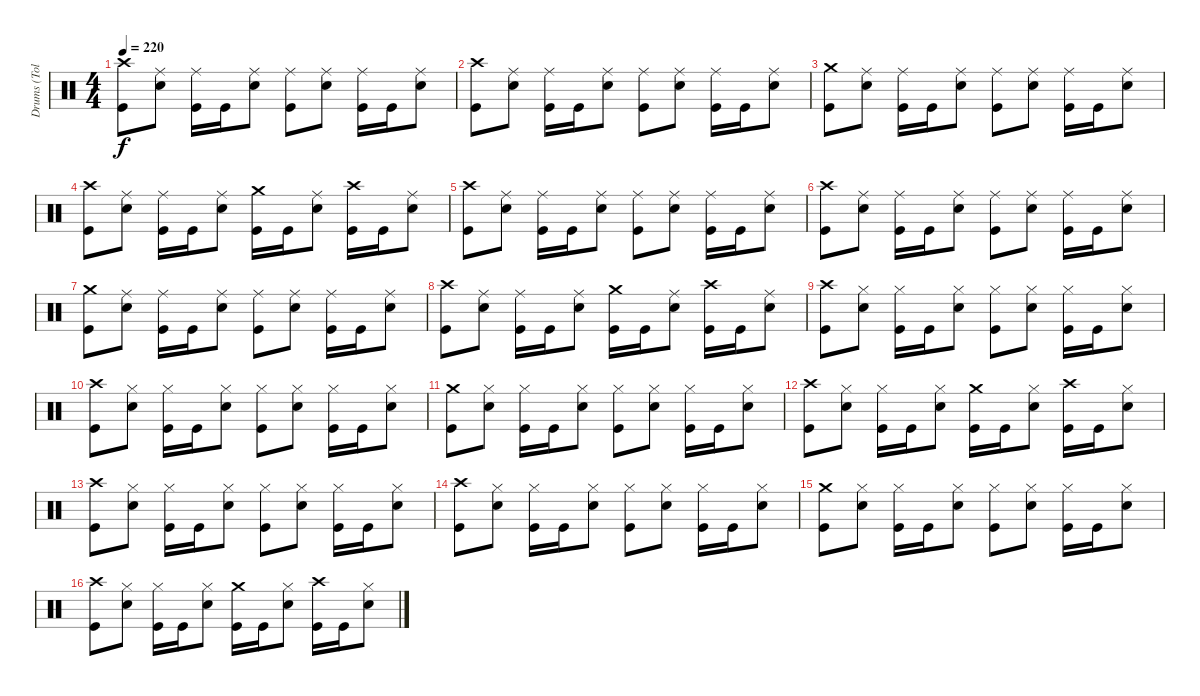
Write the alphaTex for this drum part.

\track ("Drums (Tolik)" "Drums (Tol") {instrument percussion}
\staff {score}
\articulation defaults
\ts (4 4)
\tempo 220
\clef neutral
\ks c
("Crash high (hit)" "Kick (hit)").8{dy f} ("Ride (middle)" "Electric Snare (hit)").8 ("Ride (middle)" "Kick (hit)").16 "Kick (hit)".16 ("Ride (middle)" "Electric Snare (hit)").8 ("Ride (middle)" "Kick (hit)").8 ("Ride (middle)" "Electric Snare (hit)").8 ("Ride (middle)" "Kick (hit)").16 "Kick (hit)".16 ("Ride (middle)" "Electric Snare (hit)").8 |
("Crash high (hit)" "Kick (hit)").8 ("Ride (middle)" "Electric Snare (hit)").8 ("Ride (middle)" "Kick (hit)").16 "Kick (hit)".16 ("Ride (middle)" "Electric Snare (hit)").8 ("Ride (middle)" "Kick (hit)").8 ("Ride (middle)" "Electric Snare (hit)").8 ("Ride (middle)" "Kick (hit)").16 "Kick (hit)".16 ("Ride (middle)" "Electric Snare (hit)").8 |
("Crash medium (hit)" "Kick (hit)").8 ("Ride (middle)" "Electric Snare (hit)").8 ("Ride (middle)" "Kick (hit)").16 "Kick (hit)".16 ("Ride (middle)" "Electric Snare (hit)").8 ("Ride (middle)" "Kick (hit)").8 ("Ride (middle)" "Electric Snare (hit)").8 ("Ride (middle)" "Kick (hit)").16 "Kick (hit)".16 ("Ride (middle)" "Electric Snare (hit)").8 |
("Crash high (hit)" "Kick (hit)").8 ("Ride (middle)" "Electric Snare (hit)").8 ("Ride (middle)" "Kick (hit)").16 "Kick (hit)".16 ("Ride (middle)" "Electric Snare (hit)").8 ("Crash medium (hit)" "Kick (hit)").16 "Kick (hit)".16 ("Ride (middle)" "Electric Snare (hit)").8 ("Crash high (hit)" "Kick (hit)").16 "Kick (hit)".16 ("Ride (middle)" "Electric Snare (hit)").8 |
("Crash high (hit)" "Kick (hit)").8 ("Ride (middle)" "Electric Snare (hit)").8 ("Ride (middle)" "Kick (hit)").16 "Kick (hit)".16 ("Ride (middle)" "Electric Snare (hit)").8 ("Ride (middle)" "Kick (hit)").8 ("Ride (middle)" "Electric Snare (hit)").8 ("Ride (middle)" "Kick (hit)").16 "Kick (hit)".16 ("Ride (middle)" "Electric Snare (hit)").8 |
("Crash high (hit)" "Kick (hit)").8 ("Ride (middle)" "Electric Snare (hit)").8 ("Ride (middle)" "Kick (hit)").16 "Kick (hit)".16 ("Ride (middle)" "Electric Snare (hit)").8 ("Ride (middle)" "Kick (hit)").8 ("Ride (middle)" "Electric Snare (hit)").8 ("Ride (middle)" "Kick (hit)").16 "Kick (hit)".16 ("Ride (middle)" "Electric Snare (hit)").8 |
("Crash medium (hit)" "Kick (hit)").8 ("Ride (middle)" "Electric Snare (hit)").8 ("Ride (middle)" "Kick (hit)").16 "Kick (hit)".16 ("Ride (middle)" "Electric Snare (hit)").8 ("Ride (middle)" "Kick (hit)").8 ("Ride (middle)" "Electric Snare (hit)").8 ("Ride (middle)" "Kick (hit)").16 "Kick (hit)".16 ("Ride (middle)" "Electric Snare (hit)").8 |
("Crash high (hit)" "Kick (hit)").8 ("Ride (middle)" "Electric Snare (hit)").8 ("Ride (middle)" "Kick (hit)").16 "Kick (hit)".16 ("Ride (middle)" "Electric Snare (hit)").8 ("Crash medium (hit)" "Kick (hit)").16 "Kick (hit)".16 ("Ride (middle)" "Electric Snare (hit)").8 ("Crash high (hit)" "Kick (hit)").16 "Kick (hit)".16 ("Ride (middle)" "Electric Snare (hit)").8 |
("Crash high (hit)" "Kick (hit)").8 ("Hi-Hat (closed)" "Electric Snare (hit)").8 ("Hi-Hat (closed)" "Kick (hit)").16 "Kick (hit)".16 ("Hi-Hat (closed)" "Electric Snare (hit)").8 ("Hi-Hat (closed)" "Kick (hit)").8 ("Hi-Hat (closed)" "Electric Snare (hit)").8 ("Hi-Hat (closed)" "Kick (hit)").16 "Kick (hit)".16 ("Hi-Hat (closed)" "Electric Snare (hit)").8 |
("Crash high (hit)" "Kick (hit)").8 ("Hi-Hat (closed)" "Electric Snare (hit)").8 ("Hi-Hat (closed)" "Kick (hit)").16 "Kick (hit)".16 ("Hi-Hat (closed)" "Electric Snare (hit)").8 ("Hi-Hat (closed)" "Kick (hit)").8 ("Hi-Hat (closed)" "Electric Snare (hit)").8 ("Hi-Hat (closed)" "Kick (hit)").16 "Kick (hit)".16 ("Hi-Hat (closed)" "Electric Snare (hit)").8 |
("Crash medium (hit)" "Kick (hit)").8 ("Hi-Hat (closed)" "Electric Snare (hit)").8 ("Hi-Hat (closed)" "Kick (hit)").16 "Kick (hit)".16 ("Hi-Hat (closed)" "Electric Snare (hit)").8 ("Hi-Hat (closed)" "Kick (hit)").8 ("Hi-Hat (closed)" "Electric Snare (hit)").8 ("Hi-Hat (closed)" "Kick (hit)").16 "Kick (hit)".16 ("Hi-Hat (closed)" "Electric Snare (hit)").8 |
("Crash high (hit)" "Kick (hit)").8 ("Hi-Hat (closed)" "Electric Snare (hit)").8 ("Hi-Hat (closed)" "Kick (hit)").16 "Kick (hit)".16 ("Hi-Hat (closed)" "Electric Snare (hit)").8 ("Crash medium (hit)" "Kick (hit)").16 "Kick (hit)".16 ("Hi-Hat (closed)" "Electric Snare (hit)").8 ("Crash high (hit)" "Kick (hit)").16 "Kick (hit)".16 ("Hi-Hat (closed)" "Electric Snare (hit)").8 |
("Crash high (hit)" "Kick (hit)").8 ("Hi-Hat (closed)" "Electric Snare (hit)").8 ("Hi-Hat (closed)" "Kick (hit)").16 "Kick (hit)".16 ("Hi-Hat (closed)" "Electric Snare (hit)").8 ("Hi-Hat (closed)" "Kick (hit)").8 ("Hi-Hat (closed)" "Electric Snare (hit)").8 ("Hi-Hat (closed)" "Kick (hit)").16 "Kick (hit)".16 ("Hi-Hat (closed)" "Electric Snare (hit)").8 |
("Crash high (hit)" "Kick (hit)").8 ("Hi-Hat (closed)" "Electric Snare (hit)").8 ("Hi-Hat (closed)" "Kick (hit)").16 "Kick (hit)".16 ("Hi-Hat (closed)" "Electric Snare (hit)").8 ("Hi-Hat (closed)" "Kick (hit)").8 ("Hi-Hat (closed)" "Electric Snare (hit)").8 ("Hi-Hat (closed)" "Kick (hit)").16 "Kick (hit)".16 ("Hi-Hat (closed)" "Electric Snare (hit)").8 |
("Crash medium (hit)" "Kick (hit)").8 ("Hi-Hat (closed)" "Electric Snare (hit)").8 ("Hi-Hat (closed)" "Kick (hit)").16 "Kick (hit)".16 ("Hi-Hat (closed)" "Electric Snare (hit)").8 ("Hi-Hat (closed)" "Kick (hit)").8 ("Hi-Hat (closed)" "Electric Snare (hit)").8 ("Hi-Hat (closed)" "Kick (hit)").16 "Kick (hit)".16 ("Hi-Hat (closed)" "Electric Snare (hit)").8 |
("Crash high (hit)" "Kick (hit)").8 ("Hi-Hat (closed)" "Electric Snare (hit)").8 ("Hi-Hat (closed)" "Kick (hit)").16 "Kick (hit)".16 ("Hi-Hat (closed)" "Electric Snare (hit)").8 ("Crash medium (hit)" "Kick (hit)").16 "Kick (hit)".16 ("Hi-Hat (closed)" "Electric Snare (hit)").8 ("Crash high (hit)" "Kick (hit)").16 "Kick (hit)".16 ("Hi-Hat (closed)" "Electric Snare (hit)").8
